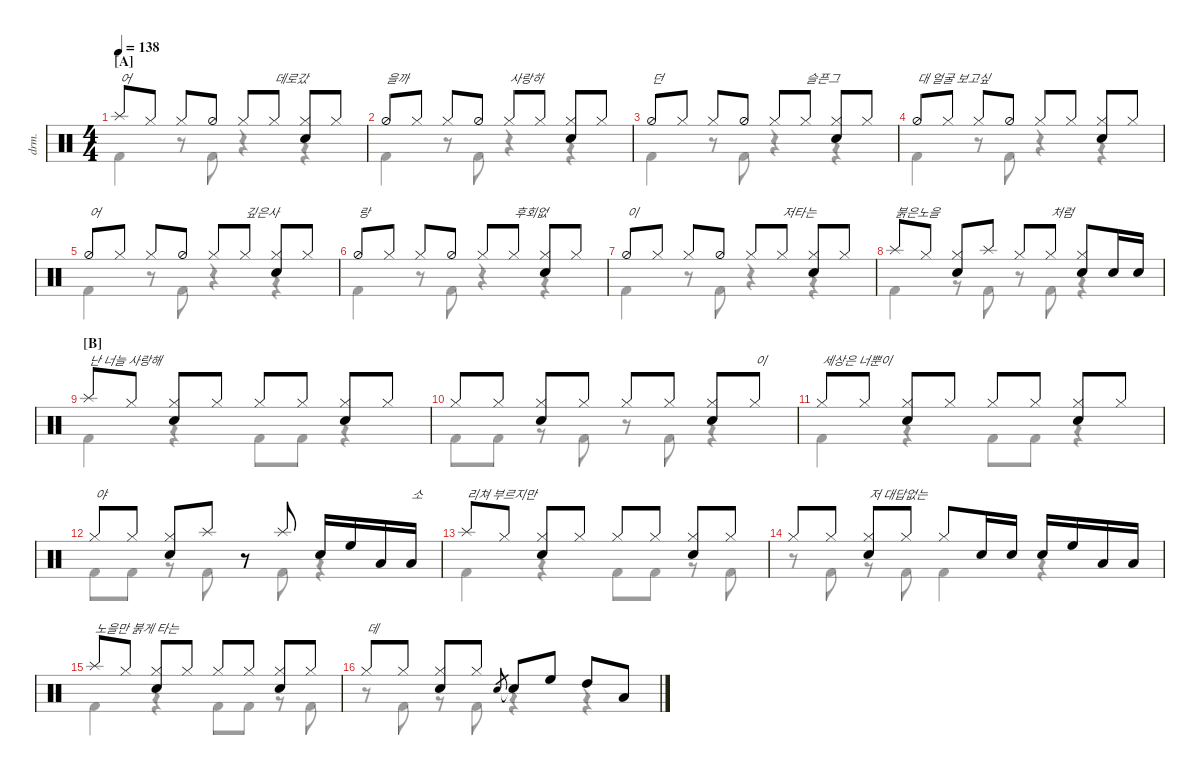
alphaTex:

\defaultSystemsLayout 4
\hideDynamics
\bracketExtendMode nobrackets
\track ("Drumkit" "drm.") {instrument percussion}
\staff {score}
\articulation defaults
\voice
\ts (4 4)
\section ("A" "")
\tempo 138
\clef neutral
\ks c "Splash (hit)".8{txt "어" dy mf beam Up} "Hi-Hat (closed)".8{beam Up} "Hi-Hat (closed)".8{beam Up} "Hi-Hat (half)".8{beam Up} "Hi-Hat (closed)".8{beam Up} "Hi-Hat (closed)".8{txt "데로갔" beam Up}
("Hi-Hat (closed)" "Snare (hit) 2").8{beam Up} "Hi-Hat (closed)".8{beam Up} |
"Hi-Hat (half)".8{txt "을까" beam Up} "Hi-Hat (closed)".8{beam Up} "Hi-Hat (closed)".8{beam Up} "Hi-Hat (half)".8{beam Up} "Hi-Hat (closed)".8{txt "사랑하" beam Up} "Hi-Hat (closed)".8{beam Up} ("Hi-Hat (closed)" "Snare (hit) 2").8{beam Up} "Hi-Hat (closed)".8{beam Up} |
"Hi-Hat (half)".8{txt "던" beam Up} "Hi-Hat (closed)".8{beam Up} "Hi-Hat (closed)".8{beam Up} "Hi-Hat (half)".8{beam Up} "Hi-Hat (closed)".8{beam Up} "Hi-Hat (closed)".8{txt "슬픈그" beam Up} ("Hi-Hat (closed)" "Snare (hit) 2").8{beam Up} "Hi-Hat (closed)".8{beam Up} |
"Hi-Hat (half)".8{txt "대 얼굴 보고싶" beam Up} "Hi-Hat (closed)".8{beam Up} "Hi-Hat (closed)".8{beam Up} "Hi-Hat (half)".8{beam Up} "Hi-Hat (closed)".8{beam Up} "Hi-Hat (closed)".8{beam Up} ("Hi-Hat (closed)" "Snare (hit) 2").8{beam Up} "Hi-Hat (closed)".8{beam Up} |
"Hi-Hat (half)".8{txt "어" beam Up} "Hi-Hat (closed)".8{beam Up} "Hi-Hat (closed)".8{beam Up} "Hi-Hat (half)".8{beam Up} "Hi-Hat (closed)".8{beam Up} "Hi-Hat (closed)".8{txt "깊은사" beam Up} ("Hi-Hat (closed)" "Snare (hit) 2").8{beam Up} "Hi-Hat (closed)".8{beam Up} |
"Hi-Hat (half)".8{txt "랑" beam Up} "Hi-Hat (closed)".8{beam Up} "Hi-Hat (closed)".8{beam Up} "Hi-Hat (half)".8{beam Up} "Hi-Hat (closed)".8{beam Up} "Hi-Hat (closed)".8{txt "후회없" beam Up} ("Hi-Hat (closed)" "Snare (hit) 2").8{beam Up} "Hi-Hat (closed)".8{beam Up} |
"Hi-Hat (half)".8{txt "이" beam Up} "Hi-Hat (closed)".8{beam Up} "Hi-Hat (closed)".8{beam Up} "Hi-Hat (half)".8{beam Up} "Hi-Hat (closed)".8{beam Up} "Hi-Hat (closed)".8{txt "저타는" beam Up} ("Hi-Hat (closed)" "Snare (hit) 2").8{beam Up} "Hi-Hat (closed)".8{beam Up} |
"Splash (hit)".8{txt "붉은노을" beam Up} "Hi-Hat (closed)".8{beam Up} ("Hi-Hat (closed)" "Snare (hit) 2").8{beam Up} "Splash (hit)".8{beam Up} "Hi-Hat (closed)".8{beam Up} "Hi-Hat (closed)".8{txt "처럼" beam Up} ("Hi-Hat (closed)" "Snare (hit) 2").8{beam Up} "Snare (hit) 2".16{beam Up} "Snare (hit) 2".16{beam Up} |
\section ("B" "")
"Splash (hit)".8{txt "난 너늘 사랑해" beam Up} "Hi-Hat (closed)".8{beam Up} ("Hi-Hat (closed)" "Snare (hit) 2").8{beam Up} "Hi-Hat (closed)".8{beam Up} "Hi-Hat (closed)".8{beam Up} "Hi-Hat (closed)".8{beam Up} ("Hi-Hat (closed)" "Snare (hit) 2").8{beam Up} "Hi-Hat (closed)".8{beam Up} |
"Hi-Hat (closed)".8{beam Up} "Hi-Hat (closed)".8{beam Up} ("Hi-Hat (closed)" "Snare (hit) 2").8{beam Up} "Hi-Hat (closed)".8{beam Up} "Hi-Hat (closed)".8{beam Up} "Hi-Hat (closed)".8{beam Up} ("Hi-Hat (closed)" "Snare (hit) 2").8{beam Up} "Hi-Hat (closed)".8{txt "이" beam Up} |
"Hi-Hat (closed)".8{txt "세상은 너뿐이" beam Up} "Hi-Hat (closed)".8{beam Up} ("Hi-Hat (closed)" "Snare (hit) 2").8{beam Up} "Hi-Hat (closed)".8{beam Up} "Hi-Hat (closed)".8{beam Up} "Hi-Hat (closed)".8{beam Up} ("Hi-Hat (closed)" "Snare (hit) 2").8{beam Up} "Hi-Hat (closed)".8{beam Up} |
"Hi-Hat (closed)".8{txt "야" beam Up} "Hi-Hat (closed)".8{beam Up} ("Hi-Hat (closed)" "Snare (hit) 2").8{beam Up} "Splash (hit)".8{beam Up} r.8{beam Up} "Splash (hit)".8{beam Up} "Snare (hit) 2".16{beam Up} "High Floor Tom (hit)".16{beam Up} "Low Tom (hit)".16{beam Up} "Low Tom (hit)".16{txt "소" beam Up} |
"Splash (hit)".8{txt "리쳐 부르지만" beam Up} "Hi-Hat (closed)".8{beam Up} ("Hi-Hat (closed)" "Snare (hit) 2").8{beam Up} "Hi-Hat (closed)".8{beam Up} "Hi-Hat (closed)".8{beam Up} "Hi-Hat (closed)".8{beam Up} ("Hi-Hat (closed)" "Snare (hit) 2").8{beam Up} "Hi-Hat (closed)".8{beam Up} |
"Hi-Hat (closed)".8{beam Up} "Hi-Hat (closed)".8{beam Up} ("Hi-Hat (closed)" "Snare (hit) 2").8{txt "저 대답없는" beam Up} "Hi-Hat (closed)".8{beam Up} "Hi-Hat (closed)".8{beam Up} "Snare (hit) 2".16{beam Up} "Snare (hit) 2".16{beam Up} "Snare (hit) 2".16{beam Up} "High Floor Tom (hit)".16{beam Up} "Low Tom (hit)".16{beam Up} "Low Tom (hit)".16{beam Up} |
"Splash (hit)".8{txt "노을만 붉게 타는" beam Up} "Hi-Hat (closed)".8{beam Up} ("Hi-Hat (closed)" "Snare (hit) 2").8{beam Up} "Hi-Hat (closed)".8{beam Up} "Hi-Hat (closed)".8{beam Up} "Hi-Hat (closed)".8{beam Up} ("Hi-Hat (closed)" "Snare (hit) 2").8{beam Up} "Hi-Hat (closed)".8{beam Up} |
"Hi-Hat (closed)".8{txt "데" beam Up} "Hi-Hat (closed)".8{beam Up} ("Hi-Hat (closed)" "Snare (hit) 2").8{beam Up} "Hi-Hat (closed)".8{beam Up} "Snare (hit) 2".8{gr beam Up} "Snare (hit) 2"{t}.8{beam Up} "High Floor Tom (hit)".8{beam Up} "High Tom (hit)".8{beam Up} "Low Tom (hit)".8{beam Up}
\voice
\clef neutral
\ottava regular
\simile none
\ks c
|
|
|
|
|
|
|
|
|
|
|
|
|
|
|
\voice
\clef neutral
\ottava regular
\simile none
\ks c "Kick (hit) 2".4{dy mf beam Down}
r.8{beam Down} "Kick (hit) 2".8{beam Down} r.4{beam Down} r.4{beam Down} |
"Kick (hit) 2".4{beam Down} r.8{beam Down} "Kick (hit) 2".8{beam Down} r.4{beam Down} r.4{beam Down} |
"Kick (hit) 2".4{beam Down} r.8{beam Down} "Kick (hit) 2".8{beam Down} r.4{beam Down} r.4{beam Down} |
"Kick (hit) 2".4{beam Down} r.8{beam Down} "Kick (hit) 2".8{beam Down} r.4{beam Down} r.4{beam Down} |
"Kick (hit) 2".4{beam Down} r.8{beam Down} "Kick (hit) 2".8{beam Down} r.4{beam Down} r.4{beam Down} |
"Kick (hit) 2".4{beam Down} r.8{beam Down} "Kick (hit) 2".8{beam Down} r.4{beam Down} r.4{beam Down} |
"Kick (hit) 2".4{beam Down} r.8{beam Down} "Kick (hit) 2".8{beam Down} r.4{beam Down} r.4{beam Down} |
"Kick (hit) 2".4{beam Down} r.8{beam Down} "Kick (hit) 2".8{beam Down} r.8{beam Down} "Kick (hit) 2".8{beam Down} r.4{beam Down} |
"Kick (hit) 2".4{beam Down} r.4{beam Down} "Kick (hit) 2".8{beam Down} "Kick (hit) 2".8{beam Down} r.4{beam Down} |
"Kick (hit) 2".8{beam Down} "Kick (hit) 2".8{beam Down} r.8{beam Down} "Kick (hit) 2".8{beam Down} r.8{beam Down} "Kick (hit) 2".8{beam Down} r.4{beam Down} |
"Kick (hit) 2".4{beam Down} r.4{beam Down} "Kick (hit) 2".8{beam Down} "Kick (hit) 2".8{beam Down} r.4{beam Down} |
"Kick (hit) 2".8{beam Down} "Kick (hit) 2".8{beam Down} r.8{beam Down} "Kick (hit) 2".8{beam Down} r.8{beam Down} "Kick (hit) 2".8{beam Down} r.4{beam Down} |
"Kick (hit) 2".4{beam Down} r.4{beam Down} "Kick (hit) 2".8{beam Down} "Kick (hit) 2".8{beam Down} r.8{beam Down} "Kick (hit) 2".8{beam Down} |
r.8{beam Down} "Kick (hit) 2".8{beam Down} r.8{beam Down} "Kick (hit) 2".8{beam Down} "Kick (hit) 2".4{beam Down} r.4{beam Down} |
"Kick (hit) 2".4{beam Down} r.4{beam Down} "Kick (hit) 2".8{beam Down} "Kick (hit) 2".8{beam Down} r.8{beam Down} "Kick (hit) 2".8{beam Down} |
r.8{beam Down} "Kick (hit) 2".8{beam Down} r.8{beam Down} "Kick (hit) 2".8{beam Down} r.4{beam Down} r.4{beam Down}
